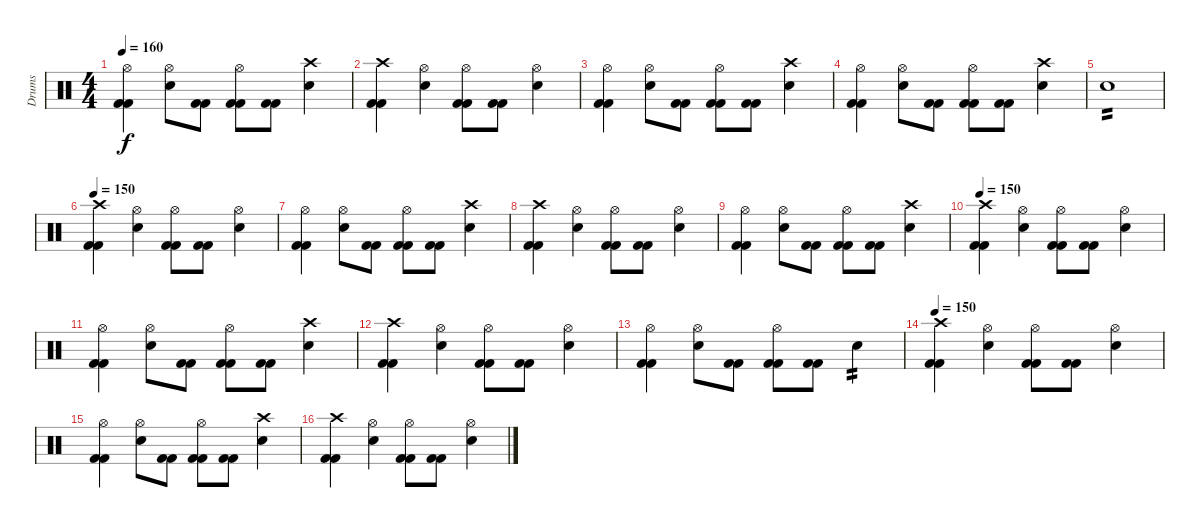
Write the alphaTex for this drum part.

\track ("Drums" "Drums") {instrument percussion}
\staff {score}
\articulation defaults
\ts (4 4)
\tempo 160
\clef neutral
\ks c
("Hi-Hat (open)" "Kick (hit) 2" "Kick (hit) 2").4{dy f} ("Electric Snare (hit)" "Hi-Hat (open)").8 ("Kick (hit) 2" "Kick (hit) 2").8 ("Kick (hit) 2" "Kick (hit) 2" "Hi-Hat (open)").8 ("Kick (hit) 2" "Kick (hit) 2").8 ("Electric Snare (hit)" "Crash high (hit)").4 |
("Crash high (hit)" "Kick (hit) 2" "Kick (hit) 2").4 ("Electric Snare (hit)" "Hi-Hat (open)").4 ("Hi-Hat (open)" "Kick (hit) 2" "Kick (hit) 2").8 ("Kick (hit) 2" "Kick (hit) 2").8 ("Electric Snare (hit)" "Hi-Hat (open)").4 |
("Hi-Hat (open)" "Kick (hit) 2" "Kick (hit) 2").4 ("Electric Snare (hit)" "Hi-Hat (open)").8 ("Kick (hit) 2" "Kick (hit) 2").8 ("Kick (hit) 2" "Kick (hit) 2" "Hi-Hat (open)").8 ("Kick (hit) 2" "Kick (hit) 2").8 ("Electric Snare (hit)" "Crash high (hit)").4 |
("Hi-Hat (open)" "Kick (hit) 2" "Kick (hit) 2").4 ("Electric Snare (hit)" "Hi-Hat (open)").8 ("Kick (hit) 2" "Kick (hit) 2").8 ("Kick (hit) 2" "Kick (hit) 2" "Hi-Hat (open)").8 ("Kick (hit) 2" "Kick (hit) 2").8 ("Electric Snare (hit)" "Crash high (hit)").4 |
"Electric Snare (hit)".1{tp 2} |
\tempo 150
("Crash high (hit)" "Kick (hit) 2" "Kick (hit) 2").4 ("Electric Snare (hit)" "Hi-Hat (open)").4 ("Hi-Hat (open)" "Kick (hit) 2" "Kick (hit) 2").8 ("Kick (hit) 2" "Kick (hit) 2").8 ("Electric Snare (hit)" "Hi-Hat (open)").4 |
("Hi-Hat (open)" "Kick (hit) 2" "Kick (hit) 2").4 ("Electric Snare (hit)" "Hi-Hat (open)").8 ("Kick (hit) 2" "Kick (hit) 2").8 ("Kick (hit) 2" "Kick (hit) 2" "Hi-Hat (open)").8 ("Kick (hit) 2" "Kick (hit) 2").8 ("Electric Snare (hit)" "Crash high (hit)").4 |
("Crash high (hit)" "Kick (hit) 2" "Kick (hit) 2").4 ("Electric Snare (hit)" "Hi-Hat (open)").4 ("Hi-Hat (open)" "Kick (hit) 2" "Kick (hit) 2").8 ("Kick (hit) 2" "Kick (hit) 2").8 ("Electric Snare (hit)" "Hi-Hat (open)").4 |
("Hi-Hat (open)" "Kick (hit) 2" "Kick (hit) 2").4 ("Electric Snare (hit)" "Hi-Hat (open)").8 ("Kick (hit) 2" "Kick (hit) 2").8 ("Kick (hit) 2" "Kick (hit) 2" "Hi-Hat (open)").8 ("Kick (hit) 2" "Kick (hit) 2").8 ("Electric Snare (hit)" "Crash high (hit)").4 |
\tempo 150
("Crash high (hit)" "Kick (hit) 2" "Kick (hit) 2").4 ("Electric Snare (hit)" "Hi-Hat (open)").4 ("Hi-Hat (open)" "Kick (hit) 2" "Kick (hit) 2").8 ("Kick (hit) 2" "Kick (hit) 2").8 ("Electric Snare (hit)" "Hi-Hat (open)").4 |
("Hi-Hat (open)" "Kick (hit) 2" "Kick (hit) 2").4 ("Electric Snare (hit)" "Hi-Hat (open)").8 ("Kick (hit) 2" "Kick (hit) 2").8 ("Kick (hit) 2" "Kick (hit) 2" "Hi-Hat (open)").8 ("Kick (hit) 2" "Kick (hit) 2").8 ("Electric Snare (hit)" "Crash high (hit)").4 |
("Crash high (hit)" "Kick (hit) 2" "Kick (hit) 2").4 ("Electric Snare (hit)" "Hi-Hat (open)").4 ("Hi-Hat (open)" "Kick (hit) 2" "Kick (hit) 2").8 ("Kick (hit) 2" "Kick (hit) 2").8 ("Electric Snare (hit)" "Hi-Hat (open)").4 |
("Hi-Hat (open)" "Kick (hit) 2" "Kick (hit) 2").4 ("Electric Snare (hit)" "Hi-Hat (open)").8 ("Kick (hit) 2" "Kick (hit) 2").8 ("Kick (hit) 2" "Kick (hit) 2" "Hi-Hat (open)").8 ("Kick (hit) 2" "Kick (hit) 2").8 "Electric Snare (hit)".4{tp 2} |
\tempo 150
("Crash high (hit)" "Kick (hit) 2" "Kick (hit) 2").4 ("Electric Snare (hit)" "Hi-Hat (open)").4 ("Hi-Hat (open)" "Kick (hit) 2" "Kick (hit) 2").8 ("Kick (hit) 2" "Kick (hit) 2").8 ("Electric Snare (hit)" "Hi-Hat (open)").4 |
("Hi-Hat (open)" "Kick (hit) 2" "Kick (hit) 2").4 ("Electric Snare (hit)" "Hi-Hat (open)").8 ("Kick (hit) 2" "Kick (hit) 2").8 ("Kick (hit) 2" "Kick (hit) 2" "Hi-Hat (open)").8 ("Kick (hit) 2" "Kick (hit) 2").8 ("Electric Snare (hit)" "Crash high (hit)").4 |
("Crash high (hit)" "Kick (hit) 2" "Kick (hit) 2").4 ("Electric Snare (hit)" "Hi-Hat (open)").4 ("Hi-Hat (open)" "Kick (hit) 2" "Kick (hit) 2").8 ("Kick (hit) 2" "Kick (hit) 2").8 ("Electric Snare (hit)" "Hi-Hat (open)").4
